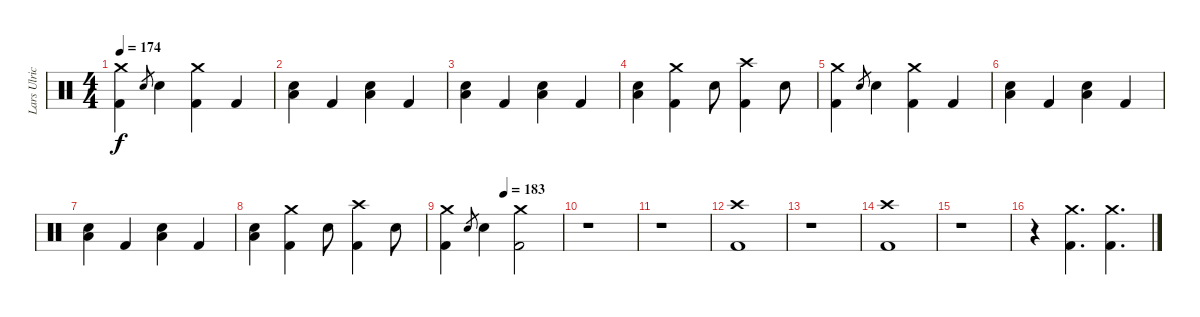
\track ("Lars Ulrich" "Lars Ulric") {instrument percussion}
\staff {score}
\articulation defaults
\ts (4 4)
\tempo 174
\clef neutral
\ks c
("Crash medium (hit)" "Kick (hit) 2").4{dy f} "Snare (hit) 2".8{gr} "Snare (hit) 2".4 ("Crash medium (hit)" "Kick (hit) 2").4 "Kick (hit) 2".4 |
("Snare (hit) 2" "Low Floor Tom (hit)").4 "Kick (hit) 2".4 ("Snare (hit) 2" "Low Floor Tom (hit)").4 "Kick (hit) 2".4 |
("Snare (hit) 2" "Low Floor Tom (hit)").4 "Kick (hit) 2".4 ("Snare (hit) 2" "Low Floor Tom (hit)").4 "Kick (hit) 2".4 |
("Snare (hit) 2" "Low Floor Tom (hit)").4 ("Crash medium (hit)" "Kick (hit) 2").4 "Snare (hit) 2".8 ("Crash high (hit)" "Kick (hit) 2").4 "Snare (hit) 2".8 |
("Crash medium (hit)" "Kick (hit) 2").4 "Snare (hit) 2".8{gr} "Snare (hit) 2".4 ("Crash medium (hit)" "Kick (hit) 2").4 "Kick (hit) 2".4 |
("Snare (hit) 2" "Low Floor Tom (hit)").4 "Kick (hit) 2".4 ("Snare (hit) 2" "Low Floor Tom (hit)").4 "Kick (hit) 2".4 |
("Snare (hit) 2" "Low Floor Tom (hit)").4 "Kick (hit) 2".4 ("Snare (hit) 2" "Low Floor Tom (hit)").4 "Kick (hit) 2".4 |
("Snare (hit) 2" "Low Floor Tom (hit)").4 ("Crash medium (hit)" "Kick (hit) 2").4 "Snare (hit) 2".8 ("Crash high (hit)" "Kick (hit) 2").4 "Snare (hit) 2".8 |
\tempo (183 0.5)
("Crash medium (hit)" "Kick (hit) 2").4 "Snare (hit) 2".8{gr} "Snare (hit) 2".4 ("Crash medium (hit)" "Kick (hit) 2").2 |
r.1 |
r.1 |
("Crash high (hit)" "Kick (hit) 2").1 |
r.1 |
("Crash high (hit)" "Kick (hit) 2").1 |
r.1 |
r.4 ("Crash medium (hit)" "Kick (hit) 2").4{d} ("Crash medium (hit)" "Kick (hit) 2").4{d}
